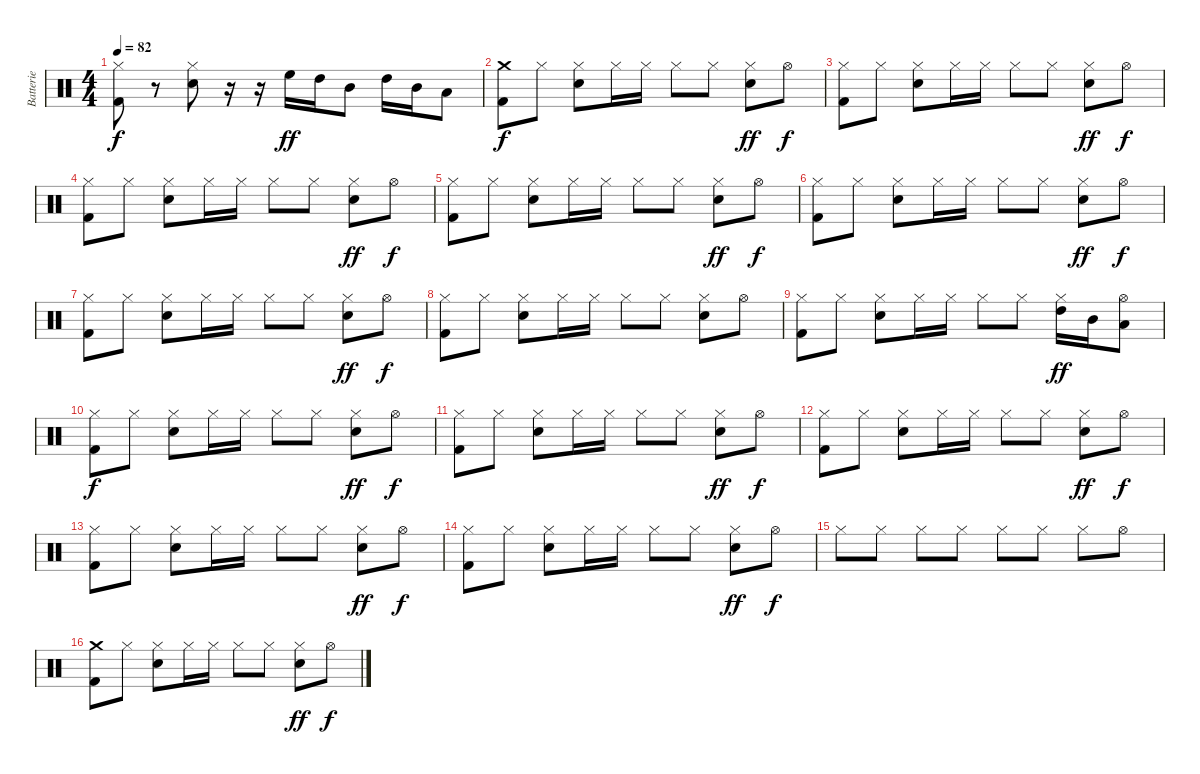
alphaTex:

\track ("Batterie" "Batterie") {instrument percussion}
\staff {score}
\articulation defaults
\ts (4 4)
\tempo 82
\clef neutral
\ks c
("Hi-Hat (closed)" "Kick (hit) 2").8{dy f} r.8 ("Hi-Hat (closed)" "Electric Snare (hit)").8 r.16 r.16 "High Floor Tom (hit)".16{dy ff} "High Tom (hit)".16 "Mid Tom (hit)".8 "High Tom (hit)".16 "Mid Tom (hit)".16 "Low Tom (hit)".8 |
("Crash medium (hit)" "Kick (hit) 2").8{dy f} "Hi-Hat (closed)".8 ("Hi-Hat (closed)" "Electric Snare (hit)").8 "Hi-Hat (closed)".16 "Hi-Hat (closed)".16 "Hi-Hat (closed)".8 "Hi-Hat (closed)".8 ("Hi-Hat (closed)" "Electric Snare (hit)").8{dy ff} "Hi-Hat (open)".8{dy f} |
("Hi-Hat (closed)" "Kick (hit) 2").8 "Hi-Hat (closed)".8 ("Hi-Hat (closed)" "Electric Snare (hit)").8 "Hi-Hat (closed)".16 "Hi-Hat (closed)".16 "Hi-Hat (closed)".8 "Hi-Hat (closed)".8 ("Hi-Hat (closed)" "Electric Snare (hit)").8{dy ff} "Hi-Hat (open)".8{dy f} |
("Hi-Hat (closed)" "Kick (hit) 2").8 "Hi-Hat (closed)".8 ("Hi-Hat (closed)" "Electric Snare (hit)").8 "Hi-Hat (closed)".16 "Hi-Hat (closed)".16 "Hi-Hat (closed)".8 "Hi-Hat (closed)".8 ("Hi-Hat (closed)" "Electric Snare (hit)").8{dy ff} "Hi-Hat (open)".8{dy f} |
("Hi-Hat (closed)" "Kick (hit) 2").8 "Hi-Hat (closed)".8 ("Hi-Hat (closed)" "Electric Snare (hit)").8 "Hi-Hat (closed)".16 "Hi-Hat (closed)".16 "Hi-Hat (closed)".8 "Hi-Hat (closed)".8 ("Hi-Hat (closed)" "Electric Snare (hit)").8{dy ff} "Hi-Hat (open)".8{dy f} |
("Hi-Hat (closed)" "Kick (hit) 2").8 "Hi-Hat (closed)".8 ("Hi-Hat (closed)" "Electric Snare (hit)").8 "Hi-Hat (closed)".16 "Hi-Hat (closed)".16 "Hi-Hat (closed)".8 "Hi-Hat (closed)".8 ("Hi-Hat (closed)" "Electric Snare (hit)").8{dy ff} "Hi-Hat (open)".8{dy f} |
("Hi-Hat (closed)" "Kick (hit) 2").8 "Hi-Hat (closed)".8 ("Hi-Hat (closed)" "Electric Snare (hit)").8 "Hi-Hat (closed)".16 "Hi-Hat (closed)".16 "Hi-Hat (closed)".8 "Hi-Hat (closed)".8 ("Hi-Hat (closed)" "Electric Snare (hit)").8{dy ff} "Hi-Hat (open)".8{dy f} |
("Hi-Hat (closed)" "Kick (hit) 2").8 "Hi-Hat (closed)".8 ("Hi-Hat (closed)" "Electric Snare (hit)").8 "Hi-Hat (closed)".16 "Hi-Hat (closed)".16 "Hi-Hat (closed)".8 "Hi-Hat (closed)".8 ("Hi-Hat (closed)" "Electric Snare (hit)").8 "Hi-Hat (open)".8 |
("Hi-Hat (closed)" "Kick (hit) 2").8 "Hi-Hat (closed)".8 ("Hi-Hat (closed)" "Electric Snare (hit)").8 "Hi-Hat (closed)".16 "Hi-Hat (closed)".16 "Hi-Hat (closed)".8 "Hi-Hat (closed)".8 ("Hi-Hat (closed)" "High Tom (hit)").16{dy ff} "Mid Tom (hit)".16 ("Hi-Hat (open)" "Low Tom (hit)").8 |
("Hi-Hat (closed)" "Kick (hit) 2").8{dy f} "Hi-Hat (closed)".8 ("Hi-Hat (closed)" "Electric Snare (hit)").8 "Hi-Hat (closed)".16 "Hi-Hat (closed)".16 "Hi-Hat (closed)".8 "Hi-Hat (closed)".8 ("Hi-Hat (closed)" "Electric Snare (hit)").8{dy ff} "Hi-Hat (open)".8{dy f} |
("Hi-Hat (closed)" "Kick (hit) 2").8 "Hi-Hat (closed)".8 ("Hi-Hat (closed)" "Electric Snare (hit)").8 "Hi-Hat (closed)".16 "Hi-Hat (closed)".16 "Hi-Hat (closed)".8 "Hi-Hat (closed)".8 ("Hi-Hat (closed)" "Electric Snare (hit)").8{dy ff} "Hi-Hat (open)".8{dy f} |
("Hi-Hat (closed)" "Kick (hit) 2").8 "Hi-Hat (closed)".8 ("Hi-Hat (closed)" "Electric Snare (hit)").8 "Hi-Hat (closed)".16 "Hi-Hat (closed)".16 "Hi-Hat (closed)".8 "Hi-Hat (closed)".8 ("Hi-Hat (closed)" "Electric Snare (hit)").8{dy ff} "Hi-Hat (open)".8{dy f} |
("Hi-Hat (closed)" "Kick (hit) 2").8 "Hi-Hat (closed)".8 ("Hi-Hat (closed)" "Electric Snare (hit)").8 "Hi-Hat (closed)".16 "Hi-Hat (closed)".16 "Hi-Hat (closed)".8 "Hi-Hat (closed)".8 ("Hi-Hat (closed)" "Electric Snare (hit)").8{dy ff} "Hi-Hat (open)".8{dy f} |
("Hi-Hat (closed)" "Kick (hit) 2").8 "Hi-Hat (closed)".8 ("Hi-Hat (closed)" "Electric Snare (hit)").8 "Hi-Hat (closed)".16 "Hi-Hat (closed)".16 "Hi-Hat (closed)".8 "Hi-Hat (closed)".8 ("Hi-Hat (closed)" "Electric Snare (hit)").8{dy ff} "Hi-Hat (open)".8{dy f} |
"Hi-Hat (closed)".8 "Hi-Hat (closed)".8 "Hi-Hat (closed)".8 "Hi-Hat (closed)".8 "Hi-Hat (closed)".8 "Hi-Hat (closed)".8 "Hi-Hat (closed)".8 "Hi-Hat (open)".8 |
("Crash medium (hit)" "Kick (hit) 2").8 "Hi-Hat (closed)".8 ("Hi-Hat (closed)" "Electric Snare (hit)").8 "Hi-Hat (closed)".16 "Hi-Hat (closed)".16 "Hi-Hat (closed)".8 "Hi-Hat (closed)".8 ("Hi-Hat (closed)" "Electric Snare (hit)").8{dy ff} "Hi-Hat (open)".8{dy f}
